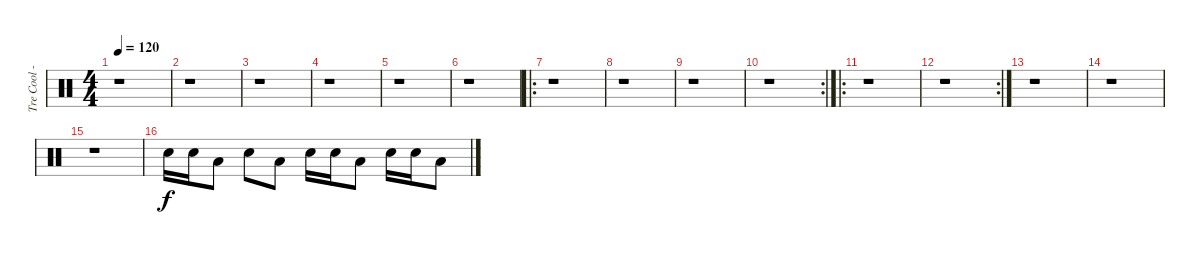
\track ("Tre Cool - Percussion" "Tre Cool -") {instrument percussion}
\staff {score}
\articulation defaults
\ts (4 4)
\tempo 120
\clef neutral
\ks c
r.1{dy f} |
r.1 |
r.1 |
r.1 |
r.1 |
r.1 |
\ro
r.1 |
r.1 |
r.1 |
\rc 2
r.1 |
\ro
r.1 |
\rc 2
r.1 |
r.1 |
r.1 |
r.1 |
"Electric Snare (hit)".16 "Electric Snare (hit)".16 "Low Tom (hit)".8 "Electric Snare (hit)".8 "Low Tom (hit)".8 "Electric Snare (hit)".16 "Electric Snare (hit)".16 "Low Tom (hit)".8 "Electric Snare (hit)".16 "Electric Snare (hit)".16 "Low Tom (hit)".8
